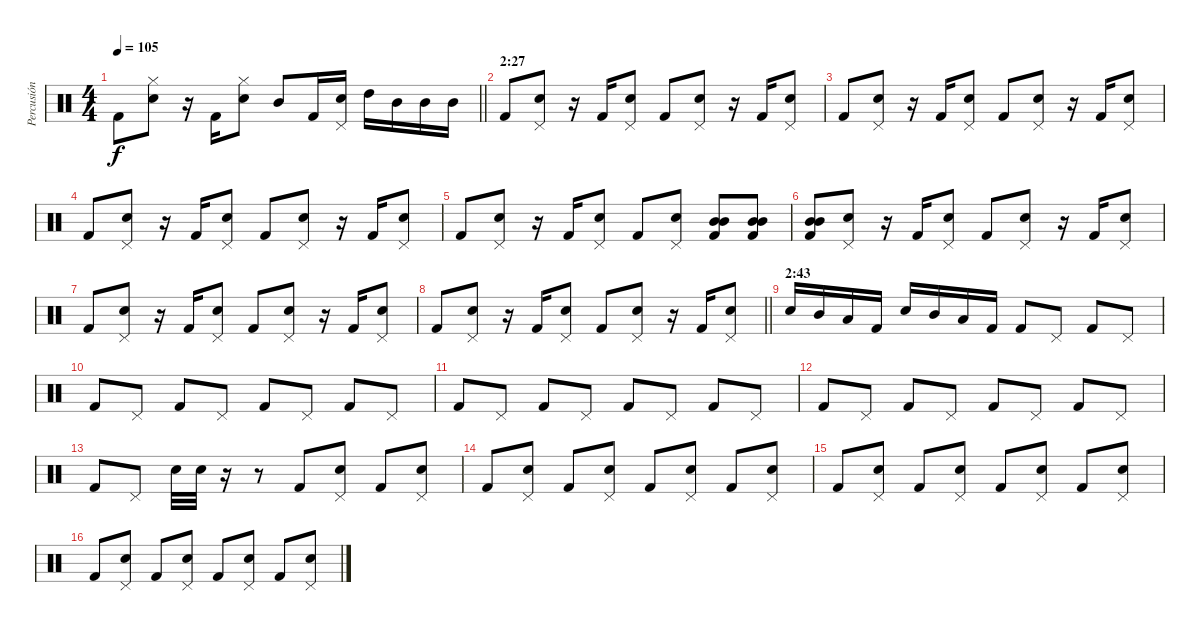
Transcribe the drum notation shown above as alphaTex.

\track ("Percusión" "Percusión") {instrument percussion}
\staff {score}
\articulation defaults
\ts (4 4)
\tempo 105
\clef neutral
\barLineRight lightlight
\ks c "Kick (hit) 2".8{dy f}
("Snare (hit) 2" "Hi-Hat (closed)").8 r.16 "Kick (hit) 2".16 ("Snare (hit) 2" "Hi-Hat (closed)").8 "Mid Tom (hit)".8 "Kick (hit) 2".16 ("Snare (hit) 2" "Pedal Hi-Hat (hit)").16 "High Tom (hit)".16 "Mid Tom (hit)".16 "Mid Tom (hit)".16 "Mid Tom (hit)".16 |
\section ("" "2:27")
"Kick (hit) 2".8 ("Snare (hit) 2" "Pedal Hi-Hat (hit)").8 r.16 "Kick (hit) 2".16 ("Snare (hit) 2" "Pedal Hi-Hat (hit)").8 "Kick (hit) 2".8 ("Snare (hit) 2" "Pedal Hi-Hat (hit)").8 r.16 "Kick (hit) 2".16 ("Snare (hit) 2" "Pedal Hi-Hat (hit)").8 |
"Kick (hit) 2".8 ("Snare (hit) 2" "Pedal Hi-Hat (hit)").8 r.16 "Kick (hit) 2".16 ("Snare (hit) 2" "Pedal Hi-Hat (hit)").8 "Kick (hit) 2".8 ("Snare (hit) 2" "Pedal Hi-Hat (hit)").8 r.16 "Kick (hit) 2".16 ("Snare (hit) 2" "Pedal Hi-Hat (hit)").8 |
"Kick (hit) 2".8 ("Snare (hit) 2" "Pedal Hi-Hat (hit)").8 r.16 "Kick (hit) 2".16 ("Snare (hit) 2" "Pedal Hi-Hat (hit)").8 "Kick (hit) 2".8 ("Snare (hit) 2" "Pedal Hi-Hat (hit)").8 r.16 "Kick (hit) 2".16 ("Snare (hit) 2" "Pedal Hi-Hat (hit)").8 |
"Kick (hit) 2".8 ("Snare (hit) 2" "Pedal Hi-Hat (hit)").8 r.16 "Kick (hit) 2".16 ("Snare (hit) 2" "Pedal Hi-Hat (hit)").8 "Kick (hit) 2".8 ("Snare (hit) 2" "Pedal Hi-Hat (hit)").8 ("Kick (hit) 2" "Mid Tom (hit)" "Mid Tom (hit)").8 ("Kick (hit) 2" "Mid Tom (hit)" "Mid Tom (hit)").8 |
("Kick (hit) 2" "Mid Tom (hit)" "Mid Tom (hit)").8 ("Snare (hit) 2" "Pedal Hi-Hat (hit)").8 r.16 "Kick (hit) 2".16 ("Snare (hit) 2" "Pedal Hi-Hat (hit)").8 "Kick (hit) 2".8 ("Snare (hit) 2" "Pedal Hi-Hat (hit)").8 r.16 "Kick (hit) 2".16 ("Snare (hit) 2" "Pedal Hi-Hat (hit)").8 |
"Kick (hit) 2".8 ("Snare (hit) 2" "Pedal Hi-Hat (hit)").8 r.16 "Kick (hit) 2".16 ("Snare (hit) 2" "Pedal Hi-Hat (hit)").8 "Kick (hit) 2".8 ("Snare (hit) 2" "Pedal Hi-Hat (hit)").8 r.16 "Kick (hit) 2".16 ("Snare (hit) 2" "Pedal Hi-Hat (hit)").8 |
\barLineRight lightlight "Kick (hit) 2".8
("Snare (hit) 2" "Pedal Hi-Hat (hit)").8 r.16 "Kick (hit) 2".16 ("Snare (hit) 2" "Pedal Hi-Hat (hit)").8 "Kick (hit) 2".8 ("Snare (hit) 2" "Pedal Hi-Hat (hit)").8 r.16 "Kick (hit) 2".16 ("Snare (hit) 2" "Pedal Hi-Hat (hit)").8 |
\section ("" "2:43")
"Snare (hit) 2".16 "Mid Tom (hit)".16 "Low Tom (hit)".16 "Kick (hit) 2".16 "Snare (hit) 2".16 "Mid Tom (hit)".16 "Low Tom (hit)".16 "Kick (hit) 2".16 "Kick (hit) 2".8 "Pedal Hi-Hat (hit)".8 "Kick (hit) 2".8 "Pedal Hi-Hat (hit)".8 |
"Kick (hit) 2".8 "Pedal Hi-Hat (hit)".8 "Kick (hit) 2".8 "Pedal Hi-Hat (hit)".8 "Kick (hit) 2".8 "Pedal Hi-Hat (hit)".8 "Kick (hit) 2".8 "Pedal Hi-Hat (hit)".8 |
"Kick (hit) 2".8 "Pedal Hi-Hat (hit)".8 "Kick (hit) 2".8 "Pedal Hi-Hat (hit)".8 "Kick (hit) 2".8 "Pedal Hi-Hat (hit)".8 "Kick (hit) 2".8 "Pedal Hi-Hat (hit)".8 |
"Kick (hit) 2".8 "Pedal Hi-Hat (hit)".8 "Kick (hit) 2".8 "Pedal Hi-Hat (hit)".8 "Kick (hit) 2".8 "Pedal Hi-Hat (hit)".8 "Kick (hit) 2".8 "Pedal Hi-Hat (hit)".8 |
"Kick (hit) 2".8 "Pedal Hi-Hat (hit)".8 "Snare (hit) 2".32 "Snare (hit) 2".32 r.16 r.8 "Kick (hit) 2".8 ("Snare (hit) 2" "Pedal Hi-Hat (hit)").8 "Kick (hit) 2".8 ("Snare (hit) 2" "Pedal Hi-Hat (hit)").8 |
"Kick (hit) 2".8 ("Snare (hit) 2" "Pedal Hi-Hat (hit)").8 "Kick (hit) 2".8 ("Snare (hit) 2" "Pedal Hi-Hat (hit)").8 "Kick (hit) 2".8 ("Snare (hit) 2" "Pedal Hi-Hat (hit)").8 "Kick (hit) 2".8 ("Snare (hit) 2" "Pedal Hi-Hat (hit)").8 |
"Kick (hit) 2".8 ("Snare (hit) 2" "Pedal Hi-Hat (hit)").8 "Kick (hit) 2".8 ("Snare (hit) 2" "Pedal Hi-Hat (hit)").8 "Kick (hit) 2".8 ("Snare (hit) 2" "Pedal Hi-Hat (hit)").8 "Kick (hit) 2".8 ("Snare (hit) 2" "Pedal Hi-Hat (hit)").8 |
"Kick (hit) 2".8 ("Snare (hit) 2" "Pedal Hi-Hat (hit)").8 "Kick (hit) 2".8 ("Snare (hit) 2" "Pedal Hi-Hat (hit)").8 "Kick (hit) 2".8 ("Snare (hit) 2" "Pedal Hi-Hat (hit)").8 "Kick (hit) 2".8 ("Snare (hit) 2" "Pedal Hi-Hat (hit)").8
